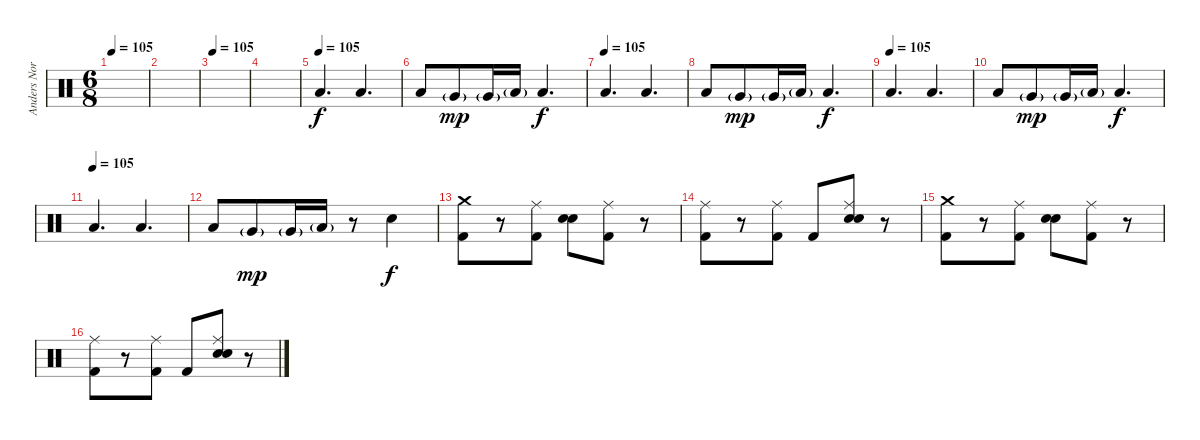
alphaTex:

\track ("Anders Nordin" "Anders Nor") {instrument percussion}
\staff {score}
\articulation defaults
\ts (6 8)
\tempo 105
\clef neutral
\ks c
|
|
\tempo 105
|
|
\tempo (105)
"Low Floor Tom (hit)".4{d} "Low Floor Tom (hit)".4{d} |
"Low Floor Tom (hit)".8 "Very Low Tom (hit)"{g}.8{dy mp} "Very Low Tom (hit)"{g}.16 "Low Floor Tom (hit)"{g}.16 "Low Floor Tom (hit)".4{d dy f} |
\tempo (105)
"Low Floor Tom (hit)".4{d} "Low Floor Tom (hit)".4{d} |
"Low Floor Tom (hit)".8 "Very Low Tom (hit)"{g}.8{dy mp} "Very Low Tom (hit)"{g}.16 "Low Floor Tom (hit)"{g}.16 "Low Floor Tom (hit)".4{d dy f} |
\tempo (105)
"Low Floor Tom (hit)".4{d} "Low Floor Tom (hit)".4{d} |
"Low Floor Tom (hit)".8 "Very Low Tom (hit)"{g}.8{dy mp} "Very Low Tom (hit)"{g}.16 "Low Floor Tom (hit)"{g}.16 "Low Floor Tom (hit)".4{d dy f} |
\tempo (105)
"Low Floor Tom (hit)".4{d} "Low Floor Tom (hit)".4{d} |
"Low Floor Tom (hit)".8 "Very Low Tom (hit)"{g}.8{dy mp} "Very Low Tom (hit)"{g}.16 "Low Floor Tom (hit)"{g}.16 r.8 "Snare (hit) 2".4{dy f} |
("Crash medium (hit)" "Kick (hit) 2").8 r.8 ("Ride (middle)" "Kick (hit) 2").8 ("Electric Snare (hit)" "Snare (hit) 2").8 ("Ride (middle)" "Kick (hit) 2").8 r.8 |
("Ride (middle)" "Kick (hit) 2").8 r.8 ("Ride (middle)" "Kick (hit) 2").8 "Kick (hit) 2".8 ("Ride (middle)" "Electric Snare (hit)" "Snare (hit) 2").8 r.8 |
("Crash medium (hit)" "Kick (hit) 2").8 r.8 ("Ride (middle)" "Kick (hit) 2").8 ("Electric Snare (hit)" "Snare (hit) 2").8 ("Ride (middle)" "Kick (hit) 2").8 r.8 |
("Ride (middle)" "Kick (hit) 2").8 r.8 ("Ride (middle)" "Kick (hit) 2").8 "Kick (hit) 2".8 ("Ride (middle)" "Electric Snare (hit)" "Snare (hit) 2").8 r.8
